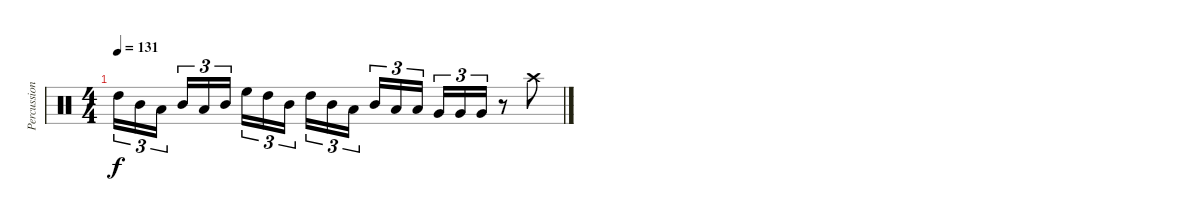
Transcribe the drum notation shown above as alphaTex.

\track ("Percussion" "Percussion") {instrument percussion}
\staff {score}
\articulation defaults
\ts (4 4)
\tempo 131
\clef neutral
\ks c "High Tom (hit)".16{tu (3 2) dy f} "Mid Tom (hit)".16{tu (3 2)} "Low Tom (hit)".16{tu (3 2)} "Mid Tom (hit)".16{tu (3 2)} "Low Tom (hit)".16{tu (3 2)} "Mid Tom (hit)".16{tu (3 2)} "High Floor Tom (hit)".16{tu (3 2)} "High Tom (hit)".16{tu (3 2)} "Mid Tom (hit)".16{tu (3 2)} "High Tom (hit)".16{tu (3 2)} "Mid Tom (hit)".16{tu (3 2)} "Low Tom (hit)".16{tu (3 2)} "Mid Tom (hit)".16{tu (3 2)} "Low Tom (hit)".16{tu (3 2)} "Low Tom (hit)".16{tu (3 2)} "Very Low Tom (hit)".16{tu (3 2)} "Very Low Tom (hit)".16{tu (3 2)} "Very Low Tom (hit)".16{tu (3 2)}
r.8 "Crash high (hit)".8
